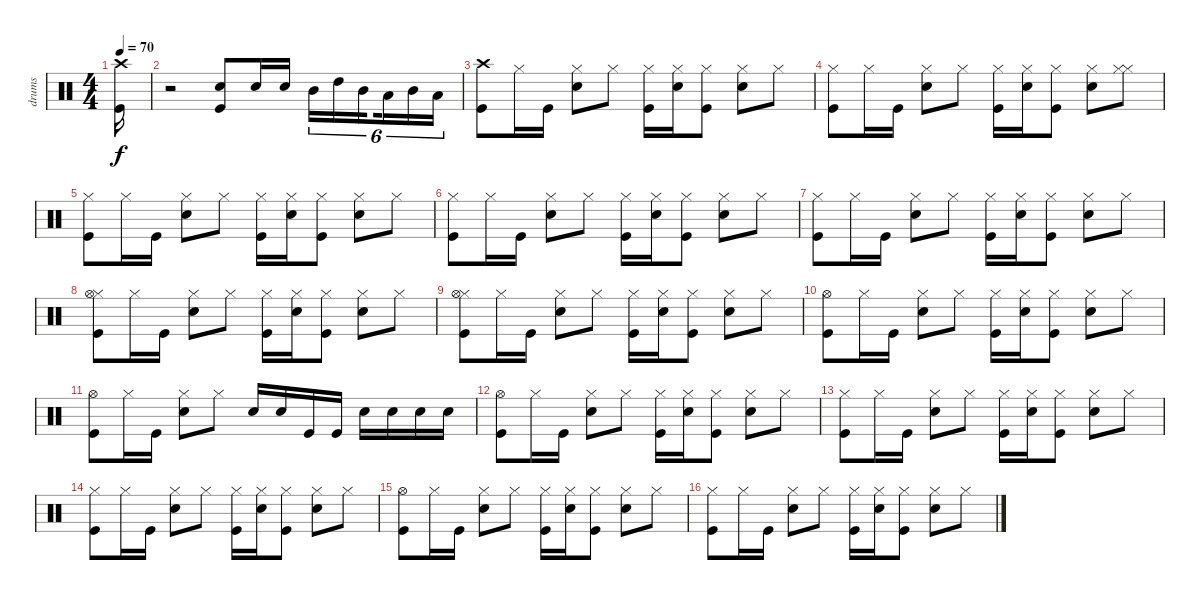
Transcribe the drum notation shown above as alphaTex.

\track ("drums" "drums") {instrument percussion}
\staff {score}
\articulation defaults
\ts (4 4)
\tempo 70
\clef neutral
\ks c
("Kick (hit)" "Crash high (hit)").16{dy f} |
r.2 ("Snare (hit) 2" "Kick (hit)").8 "Snare (hit) 2".16 "Snare (hit) 2".16 "Mid Tom (hit)".16{tu (6 4)} "High Tom (hit)".16{tu (6 4)} "Mid Tom (hit)".16{tu (6 4) beam splitsecondary} "Low Tom (hit)".16{tu (6 4)} "Mid Tom (hit)".16{tu (6 4)} "Low Tom (hit)".16{tu (6 4)} |
("Kick (hit)" "Crash high (hit)").8 "Hi-Hat (closed)".16 "Kick (hit)".16 ("Snare (hit) 2" "Hi-Hat (closed)").8 "Hi-Hat (closed)".8 ("Kick (hit)" "Hi-Hat (closed)").16 ("Snare (hit) 2" "Hi-Hat (closed)").16 ("Kick (hit)" "Hi-Hat (closed)").8 ("Snare (hit) 2" "Hi-Hat (closed)").8 "Hi-Hat (closed)".8 |
("Kick (hit)" "Hi-Hat (closed)").8 "Hi-Hat (closed)".16 "Kick (hit)".16 ("Snare (hit) 2" "Hi-Hat (closed)").8 "Hi-Hat (closed)".8 ("Kick (hit)" "Hi-Hat (closed)").16 ("Snare (hit) 2" "Hi-Hat (closed)").16 ("Kick (hit)" "Hi-Hat (closed)").8 ("Snare (hit) 2" "Hi-Hat (closed)").8 ("Hi-Hat (closed)" "Hi-Hat (closed)").8 |
("Kick (hit)" "Hi-Hat (closed)").8 "Hi-Hat (closed)".16 "Kick (hit)".16 ("Snare (hit) 2" "Hi-Hat (closed)").8 "Hi-Hat (closed)".8 ("Kick (hit)" "Hi-Hat (closed)").16 ("Snare (hit) 2" "Hi-Hat (closed)").16 ("Kick (hit)" "Hi-Hat (closed)").8 ("Snare (hit) 2" "Hi-Hat (closed)").8 "Hi-Hat (closed)".8 |
("Kick (hit)" "Hi-Hat (closed)").8 "Hi-Hat (closed)".16 "Kick (hit)".16 ("Snare (hit) 2" "Hi-Hat (closed)").8 "Hi-Hat (closed)".8 ("Kick (hit)" "Hi-Hat (closed)").16 ("Snare (hit) 2" "Hi-Hat (closed)").16 ("Kick (hit)" "Hi-Hat (closed)").8 ("Snare (hit) 2" "Hi-Hat (closed)").8 "Hi-Hat (closed)".8 |
("Kick (hit)" "Hi-Hat (closed)").8 "Hi-Hat (closed)".16 "Kick (hit)".16 ("Snare (hit) 2" "Hi-Hat (closed)").8 "Hi-Hat (closed)".8 ("Kick (hit)" "Hi-Hat (closed)").16 ("Snare (hit) 2" "Hi-Hat (closed)").16 ("Kick (hit)" "Hi-Hat (closed)").8 ("Snare (hit) 2" "Hi-Hat (closed)").8 "Hi-Hat (closed)".8 |
("Kick (hit)" "Hi-Hat (closed)" "Hi-Hat (open)").8 "Hi-Hat (closed)".16 "Kick (hit)".16 ("Snare (hit) 2" "Hi-Hat (closed)").8 "Hi-Hat (closed)".8 ("Kick (hit)" "Hi-Hat (closed)").16 ("Snare (hit) 2" "Hi-Hat (closed)").16 ("Kick (hit)" "Hi-Hat (closed)").8 ("Snare (hit) 2" "Hi-Hat (closed)").8 "Hi-Hat (closed)".8 |
("Kick (hit)" "Hi-Hat (closed)" "Hi-Hat (open)").8 "Hi-Hat (closed)".16 "Kick (hit)".16 ("Snare (hit) 2" "Hi-Hat (closed)").8 "Hi-Hat (closed)".8 ("Kick (hit)" "Hi-Hat (closed)").16 ("Snare (hit) 2" "Hi-Hat (closed)").16 ("Kick (hit)" "Hi-Hat (closed)").8 ("Snare (hit) 2" "Hi-Hat (closed)").8 "Hi-Hat (closed)".8 |
("Kick (hit)" "Hi-Hat (open)").8 "Hi-Hat (closed)".16 "Kick (hit)".16 ("Snare (hit) 2" "Hi-Hat (closed)").8 "Hi-Hat (closed)".8 ("Kick (hit)" "Hi-Hat (closed)").16 ("Snare (hit) 2" "Hi-Hat (closed)").16 ("Kick (hit)" "Hi-Hat (closed)").8 ("Snare (hit) 2" "Hi-Hat (closed)").8 "Hi-Hat (closed)".8 |
("Kick (hit)" "Hi-Hat (open)").8 "Hi-Hat (closed)".16 "Kick (hit)".16 ("Snare (hit) 2" "Hi-Hat (closed)").8 "Hi-Hat (closed)".8 "Snare (hit) 2".16 "Snare (hit) 2".16 "Kick (hit)".16 "Kick (hit)".16 "Snare (hit) 2".16 "Snare (hit) 2".16 "Snare (hit) 2".16 "Snare (hit) 2".16 |
("Kick (hit)" "Hi-Hat (open)").8 "Hi-Hat (closed)".16 "Kick (hit)".16 ("Snare (hit) 2" "Hi-Hat (closed)").8 "Hi-Hat (closed)".8 ("Kick (hit)" "Hi-Hat (closed)").16 ("Snare (hit) 2" "Hi-Hat (closed)").16 ("Kick (hit)" "Hi-Hat (closed)").8 ("Snare (hit) 2" "Hi-Hat (closed)").8 "Hi-Hat (closed)".8 |
("Kick (hit)" "Hi-Hat (closed)").8 "Hi-Hat (closed)".16 "Kick (hit)".16 ("Snare (hit) 2" "Hi-Hat (closed)").8 "Hi-Hat (closed)".8 ("Kick (hit)" "Hi-Hat (closed)").16 ("Snare (hit) 2" "Hi-Hat (closed)").16 ("Kick (hit)" "Hi-Hat (closed)").8 ("Snare (hit) 2" "Hi-Hat (closed)").8 "Hi-Hat (closed)".8 |
("Kick (hit)" "Hi-Hat (closed)").8 "Hi-Hat (closed)".16 "Kick (hit)".16 ("Snare (hit) 2" "Hi-Hat (closed)").8 "Hi-Hat (closed)".8 ("Kick (hit)" "Hi-Hat (closed)").16 ("Snare (hit) 2" "Hi-Hat (closed)").16 ("Kick (hit)" "Hi-Hat (closed)").8 ("Snare (hit) 2" "Hi-Hat (closed)").8 "Hi-Hat (closed)".8 |
("Kick (hit)" "Hi-Hat (open)").8 "Hi-Hat (closed)".16 "Kick (hit)".16 ("Snare (hit) 2" "Hi-Hat (closed)").8 "Hi-Hat (closed)".8 ("Kick (hit)" "Hi-Hat (closed)").16 ("Snare (hit) 2" "Hi-Hat (closed)").16 ("Kick (hit)" "Hi-Hat (closed)").8 ("Snare (hit) 2" "Hi-Hat (closed)").8 "Hi-Hat (closed)".8 |
("Kick (hit)" "Hi-Hat (closed)").8 "Hi-Hat (closed)".16 "Kick (hit)".16 ("Snare (hit) 2" "Hi-Hat (closed)").8 "Hi-Hat (closed)".8 ("Kick (hit)" "Hi-Hat (closed)").16 ("Snare (hit) 2" "Hi-Hat (closed)").16 ("Kick (hit)" "Hi-Hat (closed)").8 ("Snare (hit) 2" "Hi-Hat (closed)").8 "Hi-Hat (closed)".8
